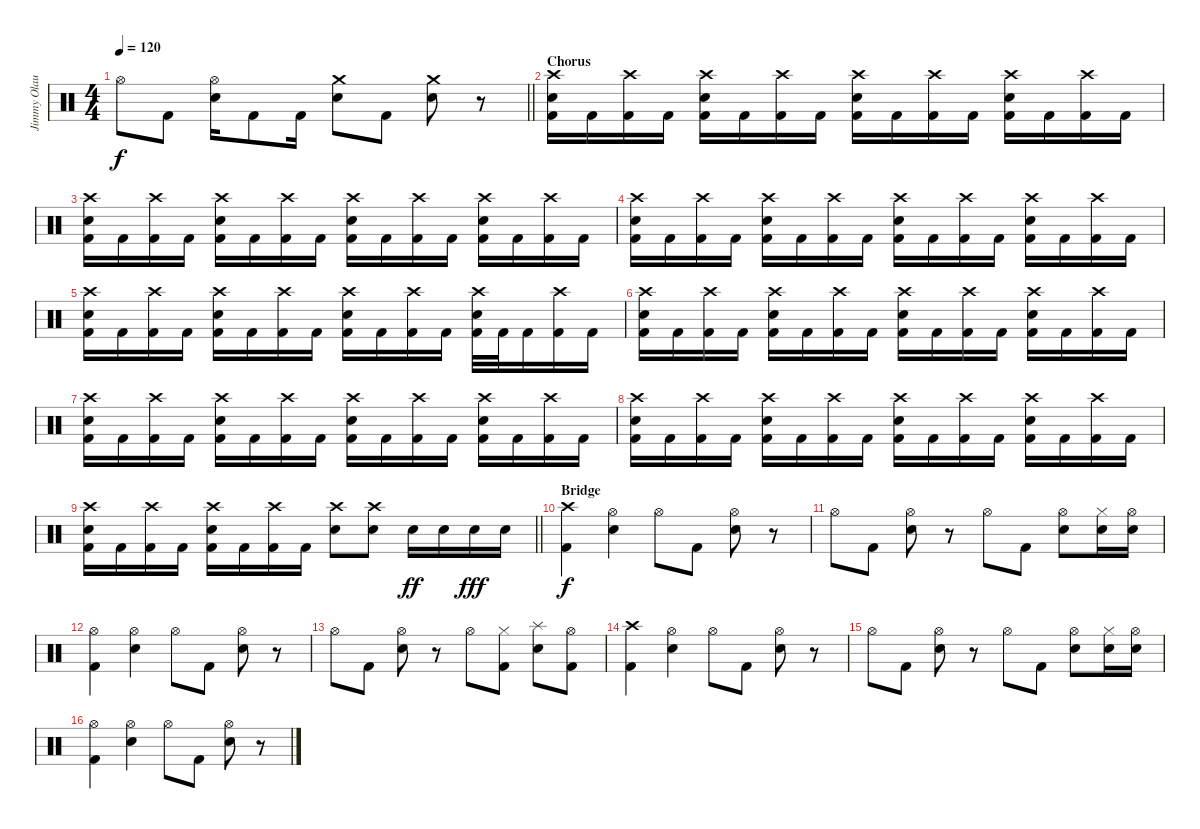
\track ("Jimmy Olausson" "Jimmy Olau") {instrument percussion}
\staff {score}
\articulation defaults
\ts (4 4)
\tempo 120
\clef neutral
\barLineRight lightlight
\ks c "Hi-Hat (open)".8{dy f} "Kick (hit) 2".8
("Hi-Hat (open)" "Snare (hit) 2").16 "Kick (hit) 2".8 "Kick (hit) 2".16 ("Crash medium (hit)" "Snare (hit) 2").8 "Kick (hit) 2".8 ("Crash medium (hit)" "Snare (hit) 2").8 r.8 |
\section ("" "Chorus")
("Crash high (hit)" "Snare (hit) 2" "Kick (hit) 2").16 "Kick (hit) 2".16 ("Crash high (hit)" "Kick (hit) 2").16 "Kick (hit) 2".16 ("Crash high (hit)" "Snare (hit) 2" "Kick (hit) 2").16 "Kick (hit) 2".16 ("Crash high (hit)" "Kick (hit) 2").16 "Kick (hit) 2".16 ("Crash high (hit)" "Snare (hit) 2" "Kick (hit) 2").16 "Kick (hit) 2".16 ("Crash high (hit)" "Kick (hit) 2").16 "Kick (hit) 2".16 ("Crash high (hit)" "Snare (hit) 2" "Kick (hit) 2").16 "Kick (hit) 2".16 ("Crash high (hit)" "Kick (hit) 2").16 "Kick (hit) 2".16 |
("Crash high (hit)" "Snare (hit) 2" "Kick (hit) 2").16 "Kick (hit) 2".16 ("Crash high (hit)" "Kick (hit) 2").16 "Kick (hit) 2".16 ("Crash high (hit)" "Snare (hit) 2" "Kick (hit) 2").16 "Kick (hit) 2".16 ("Crash high (hit)" "Kick (hit) 2").16 "Kick (hit) 2".16 ("Crash high (hit)" "Snare (hit) 2" "Kick (hit) 2").16 "Kick (hit) 2".16 ("Crash high (hit)" "Kick (hit) 2").16 "Kick (hit) 2".16 ("Crash high (hit)" "Snare (hit) 2" "Kick (hit) 2").16 "Kick (hit) 2".16 ("Crash high (hit)" "Kick (hit) 2").16 "Kick (hit) 2".16 |
("Crash high (hit)" "Snare (hit) 2" "Kick (hit) 2").16 "Kick (hit) 2".16 ("Crash high (hit)" "Kick (hit) 2").16 "Kick (hit) 2".16 ("Crash high (hit)" "Snare (hit) 2" "Kick (hit) 2").16 "Kick (hit) 2".16 ("Crash high (hit)" "Kick (hit) 2").16 "Kick (hit) 2".16 ("Crash high (hit)" "Snare (hit) 2" "Kick (hit) 2").16 "Kick (hit) 2".16 ("Crash high (hit)" "Kick (hit) 2").16 "Kick (hit) 2".16 ("Crash high (hit)" "Snare (hit) 2" "Kick (hit) 2").16 "Kick (hit) 2".16 ("Crash high (hit)" "Kick (hit) 2").16 "Kick (hit) 2".16 |
("Crash high (hit)" "Snare (hit) 2" "Kick (hit) 2").16 "Kick (hit) 2".16 ("Crash high (hit)" "Kick (hit) 2").16 "Kick (hit) 2".16 ("Crash high (hit)" "Snare (hit) 2" "Kick (hit) 2").16 "Kick (hit) 2".16 ("Crash high (hit)" "Kick (hit) 2").16 "Kick (hit) 2".16 ("Crash high (hit)" "Snare (hit) 2" "Kick (hit) 2").16 "Kick (hit) 2".16 ("Crash high (hit)" "Kick (hit) 2").16 "Kick (hit) 2".16 ("Crash high (hit)" "Snare (hit) 2" "Kick (hit) 2").32 "Kick (hit) 2".32 "Kick (hit) 2".16 ("Crash high (hit)" "Kick (hit) 2").16 "Kick (hit) 2".16 |
("Crash high (hit)" "Snare (hit) 2" "Kick (hit) 2").16 "Kick (hit) 2".16 ("Crash high (hit)" "Kick (hit) 2").16 "Kick (hit) 2".16 ("Crash high (hit)" "Snare (hit) 2" "Kick (hit) 2").16 "Kick (hit) 2".16 ("Crash high (hit)" "Kick (hit) 2").16 "Kick (hit) 2".16 ("Crash high (hit)" "Snare (hit) 2" "Kick (hit) 2").16 "Kick (hit) 2".16 ("Crash high (hit)" "Kick (hit) 2").16 "Kick (hit) 2".16 ("Crash high (hit)" "Snare (hit) 2" "Kick (hit) 2").16 "Kick (hit) 2".16 ("Crash high (hit)" "Kick (hit) 2").16 "Kick (hit) 2".16 |
("Crash high (hit)" "Snare (hit) 2" "Kick (hit) 2").16 "Kick (hit) 2".16 ("Crash high (hit)" "Kick (hit) 2").16 "Kick (hit) 2".16 ("Crash high (hit)" "Snare (hit) 2" "Kick (hit) 2").16 "Kick (hit) 2".16 ("Crash high (hit)" "Kick (hit) 2").16 "Kick (hit) 2".16 ("Crash high (hit)" "Snare (hit) 2" "Kick (hit) 2").16 "Kick (hit) 2".16 ("Crash high (hit)" "Kick (hit) 2").16 "Kick (hit) 2".16 ("Crash high (hit)" "Snare (hit) 2" "Kick (hit) 2").16 "Kick (hit) 2".16 ("Crash high (hit)" "Kick (hit) 2").16 "Kick (hit) 2".16 |
("Crash high (hit)" "Snare (hit) 2" "Kick (hit) 2").16 "Kick (hit) 2".16 ("Crash high (hit)" "Kick (hit) 2").16 "Kick (hit) 2".16 ("Crash high (hit)" "Snare (hit) 2" "Kick (hit) 2").16 "Kick (hit) 2".16 ("Crash high (hit)" "Kick (hit) 2").16 "Kick (hit) 2".16 ("Crash high (hit)" "Snare (hit) 2" "Kick (hit) 2").16 "Kick (hit) 2".16 ("Crash high (hit)" "Kick (hit) 2").16 "Kick (hit) 2".16 ("Crash high (hit)" "Snare (hit) 2" "Kick (hit) 2").16 "Kick (hit) 2".16 ("Crash high (hit)" "Kick (hit) 2").16 "Kick (hit) 2".16 |
\barLineRight lightlight
("Crash high (hit)" "Snare (hit) 2" "Kick (hit) 2").16 "Kick (hit) 2".16 ("Crash high (hit)" "Kick (hit) 2").16 "Kick (hit) 2".16 ("Crash high (hit)" "Snare (hit) 2" "Kick (hit) 2").16 "Kick (hit) 2".16 ("Crash high (hit)" "Kick (hit) 2").16 "Kick (hit) 2".16 ("Crash high (hit)" "Snare (hit) 2").8 ("Crash high (hit)" "Snare (hit) 2").8 "Snare (hit) 2".16{dy ff} "Snare (hit) 2".16 "Snare (hit) 2".16{dy fff} "Snare (hit) 2".16 |
\section ("" "Bridge")
("Crash high (hit)" "Kick (hit) 2").4{dy f} ("Hi-Hat (open)" "Snare (hit) 2").4 "Hi-Hat (open)".8 "Kick (hit) 2".8 ("Hi-Hat (open)" "Snare (hit) 2").8 r.8 |
"Hi-Hat (open)".8 "Kick (hit) 2".8 ("Hi-Hat (open)" "Snare (hit) 2").8 r.8 "Hi-Hat (open)".8 "Kick (hit) 2".8 ("Hi-Hat (open)" "Snare (hit) 2").8 ("Hi-Hat (closed)" "Snare (hit) 2").16 ("Hi-Hat (open)" "Snare (hit) 2").16 |
("Hi-Hat (open)" "Kick (hit) 2").4 ("Hi-Hat (open)" "Snare (hit) 2").4 "Hi-Hat (open)".8 "Kick (hit) 2".8 ("Hi-Hat (open)" "Snare (hit) 2").8 r.8 |
"Hi-Hat (open)".8 "Kick (hit) 2".8 ("Hi-Hat (open)" "Snare (hit) 2").8 r.8 "Hi-Hat (open)".8 ("Hi-Hat (closed)" "Kick (hit) 2").8 ("Splash (hit)" "Snare (hit) 2").8 ("Hi-Hat (open)" "Kick (hit) 2").8 |
("Crash high (hit)" "Kick (hit) 2").4 ("Hi-Hat (open)" "Snare (hit) 2").4 "Hi-Hat (open)".8 "Kick (hit) 2".8 ("Hi-Hat (open)" "Snare (hit) 2").8 r.8 |
"Hi-Hat (open)".8 "Kick (hit) 2".8 ("Hi-Hat (open)" "Snare (hit) 2").8 r.8 "Hi-Hat (open)".8 "Kick (hit) 2".8 ("Hi-Hat (open)" "Snare (hit) 2").8 ("Hi-Hat (closed)" "Snare (hit) 2").16 ("Hi-Hat (open)" "Snare (hit) 2").16 |
("Hi-Hat (open)" "Kick (hit) 2").4 ("Hi-Hat (open)" "Snare (hit) 2").4 "Hi-Hat (open)".8 "Kick (hit) 2".8 ("Hi-Hat (open)" "Snare (hit) 2").8 r.8
